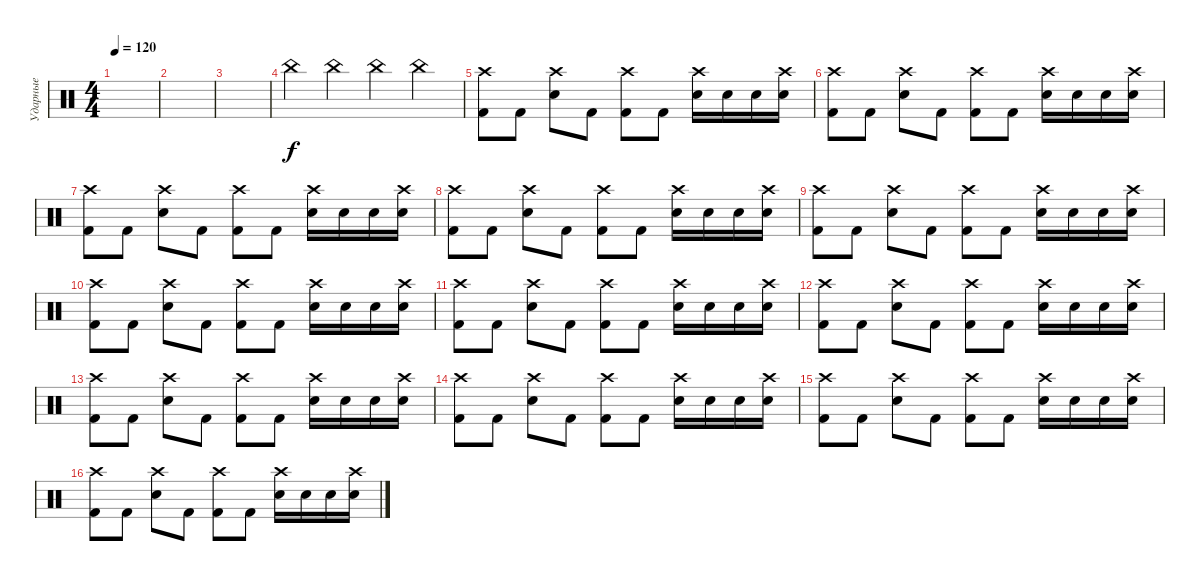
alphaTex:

\track ("Ударные" "Ударные") {instrument percussion}
\staff {score}
\articulation defaults
\ts (4 4)
\tempo 120
\clef neutral
\ks c
|
|
|
"China (hit)".4 "China (hit)".4 "China (hit)".4 "China (hit)".4 |
("Kick (hit) 2" "Crash high (hit)").8 "Kick (hit) 2".8 ("Electric Snare (hit)" "Crash high (hit)").8 "Kick (hit) 2".8 ("Kick (hit) 2" "Crash high (hit)").8 "Kick (hit) 2".8 ("Electric Snare (hit)" "Crash high (hit)").16 "Electric Snare (hit)".16 "Electric Snare (hit)".16 ("Electric Snare (hit)" "Crash high (hit)").16 |
("Kick (hit) 2" "Crash high (hit)").8 "Kick (hit) 2".8 ("Electric Snare (hit)" "Crash high (hit)").8 "Kick (hit) 2".8 ("Kick (hit) 2" "Crash high (hit)").8 "Kick (hit) 2".8 ("Electric Snare (hit)" "Crash high (hit)").16 "Electric Snare (hit)".16 "Electric Snare (hit)".16 ("Electric Snare (hit)" "Crash high (hit)").16 |
("Kick (hit) 2" "Crash high (hit)").8 "Kick (hit) 2".8 ("Electric Snare (hit)" "Crash high (hit)").8 "Kick (hit) 2".8 ("Kick (hit) 2" "Crash high (hit)").8 "Kick (hit) 2".8 ("Electric Snare (hit)" "Crash high (hit)").16 "Electric Snare (hit)".16 "Electric Snare (hit)".16 ("Electric Snare (hit)" "Crash high (hit)").16 |
("Kick (hit) 2" "Crash high (hit)").8 "Kick (hit) 2".8 ("Electric Snare (hit)" "Crash high (hit)").8 "Kick (hit) 2".8 ("Kick (hit) 2" "Crash high (hit)").8 "Kick (hit) 2".8 ("Electric Snare (hit)" "Crash high (hit)").16 "Electric Snare (hit)".16 "Electric Snare (hit)".16 ("Electric Snare (hit)" "Crash high (hit)").16 |
("Kick (hit) 2" "Crash high (hit)").8 "Kick (hit) 2".8 ("Electric Snare (hit)" "Crash high (hit)").8 "Kick (hit) 2".8 ("Kick (hit) 2" "Crash high (hit)").8 "Kick (hit) 2".8 ("Electric Snare (hit)" "Crash high (hit)").16 "Electric Snare (hit)".16 "Electric Snare (hit)".16 ("Electric Snare (hit)" "Crash high (hit)").16 |
("Kick (hit) 2" "Crash high (hit)").8 "Kick (hit) 2".8 ("Electric Snare (hit)" "Crash high (hit)").8 "Kick (hit) 2".8 ("Kick (hit) 2" "Crash high (hit)").8 "Kick (hit) 2".8 ("Electric Snare (hit)" "Crash high (hit)").16 "Electric Snare (hit)".16 "Electric Snare (hit)".16 ("Electric Snare (hit)" "Crash high (hit)").16 |
("Kick (hit) 2" "Crash high (hit)").8 "Kick (hit) 2".8 ("Electric Snare (hit)" "Crash high (hit)").8 "Kick (hit) 2".8 ("Kick (hit) 2" "Crash high (hit)").8 "Kick (hit) 2".8 ("Electric Snare (hit)" "Crash high (hit)").16 "Electric Snare (hit)".16 "Electric Snare (hit)".16 ("Electric Snare (hit)" "Crash high (hit)").16 |
("Kick (hit) 2" "Crash high (hit)").8 "Kick (hit) 2".8 ("Electric Snare (hit)" "Crash high (hit)").8 "Kick (hit) 2".8 ("Kick (hit) 2" "Crash high (hit)").8 "Kick (hit) 2".8 ("Electric Snare (hit)" "Crash high (hit)").16 "Electric Snare (hit)".16 "Electric Snare (hit)".16 ("Electric Snare (hit)" "Crash high (hit)").16 |
("Kick (hit) 2" "Crash high (hit)").8 "Kick (hit) 2".8 ("Electric Snare (hit)" "Crash high (hit)").8 "Kick (hit) 2".8 ("Kick (hit) 2" "Crash high (hit)").8 "Kick (hit) 2".8 ("Electric Snare (hit)" "Crash high (hit)").16 "Electric Snare (hit)".16 "Electric Snare (hit)".16 ("Electric Snare (hit)" "Crash high (hit)").16 |
("Kick (hit) 2" "Crash high (hit)").8 "Kick (hit) 2".8 ("Electric Snare (hit)" "Crash high (hit)").8 "Kick (hit) 2".8 ("Kick (hit) 2" "Crash high (hit)").8 "Kick (hit) 2".8 ("Electric Snare (hit)" "Crash high (hit)").16 "Electric Snare (hit)".16 "Electric Snare (hit)".16 ("Electric Snare (hit)" "Crash high (hit)").16 |
("Kick (hit) 2" "Crash high (hit)").8 "Kick (hit) 2".8 ("Electric Snare (hit)" "Crash high (hit)").8 "Kick (hit) 2".8 ("Kick (hit) 2" "Crash high (hit)").8 "Kick (hit) 2".8 ("Electric Snare (hit)" "Crash high (hit)").16 "Electric Snare (hit)".16 "Electric Snare (hit)".16 ("Electric Snare (hit)" "Crash high (hit)").16 |
("Kick (hit) 2" "Crash high (hit)").8 "Kick (hit) 2".8 ("Electric Snare (hit)" "Crash high (hit)").8 "Kick (hit) 2".8 ("Kick (hit) 2" "Crash high (hit)").8 "Kick (hit) 2".8 ("Electric Snare (hit)" "Crash high (hit)").16 "Electric Snare (hit)".16 "Electric Snare (hit)".16 ("Electric Snare (hit)" "Crash high (hit)").16
